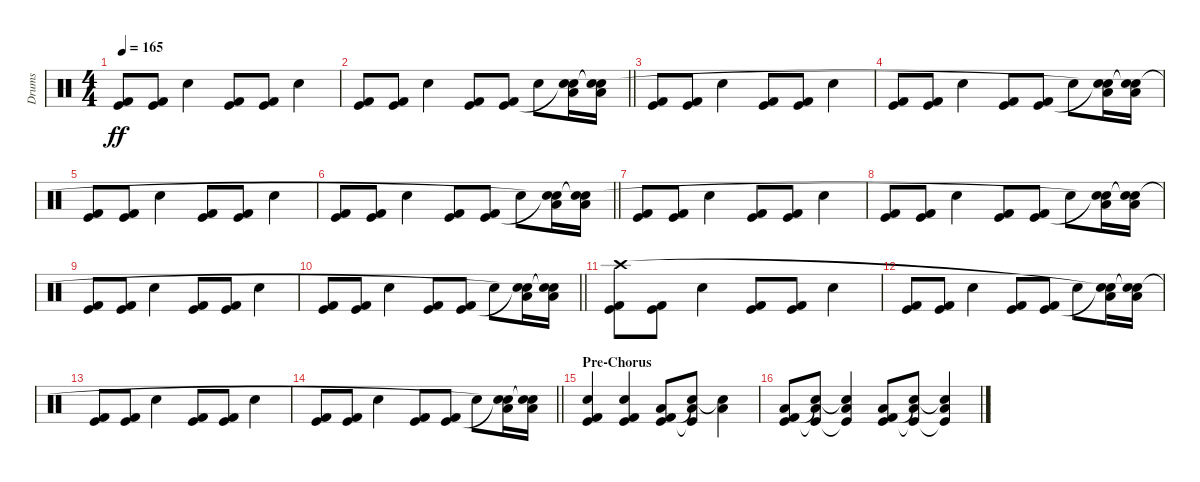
\track ("Drums" "Drums") {instrument percussion}
\staff
\articulation defaults
\ts (4 4)
\tempo 165
\clef neutral
\ks c
("Kick (hit) 2" "Kick (hit)").8{dy ff} ("Kick (hit) 2" "Kick (hit)").8 "Electric Snare (hit)".4 ("Kick (hit) 2" "Kick (hit)").8 ("Kick (hit) 2" "Kick (hit)").8 "Electric Snare (hit)".4 |
\barLineRight lightlight
("Kick (hit) 2" "Kick (hit)").8 ("Kick (hit) 2" "Kick (hit)").8 "Electric Snare (hit)".4 ("Kick (hit) 2" "Kick (hit)").8 ("Kick (hit) 2" "Kick (hit)").8 "Electric Snare (hit)".8 ("Low Tom (hit)" "Snare (hit)"{t} "Snare (hit)"{t}).16 ("Low Floor Tom (hit)" "Snare (hit)"{t} "Snare (hit)"{t}).16 |
("Kick (hit) 2" "Kick (hit)").8 ("Kick (hit) 2" "Kick (hit)").8 "Electric Snare (hit)".4 ("Kick (hit) 2" "Kick (hit)").8 ("Kick (hit) 2" "Kick (hit)").8 "Electric Snare (hit)".4 |
("Kick (hit) 2" "Kick (hit)").8 ("Kick (hit) 2" "Kick (hit)").8 "Electric Snare (hit)".4 ("Kick (hit) 2" "Kick (hit)").8 ("Kick (hit) 2" "Kick (hit)").8 "Electric Snare (hit)".8 ("Low Tom (hit)" "Snare (hit)"{t} "Snare (hit)"{t}).16 ("Low Floor Tom (hit)" "Snare (hit)"{t} "Snare (hit)"{t}).16 |
("Kick (hit) 2" "Kick (hit)").8 ("Kick (hit) 2" "Kick (hit)").8 "Electric Snare (hit)".4 ("Kick (hit) 2" "Kick (hit)").8 ("Kick (hit) 2" "Kick (hit)").8 "Electric Snare (hit)".4 |
\barLineRight lightlight
("Kick (hit) 2" "Kick (hit)").8 ("Kick (hit) 2" "Kick (hit)").8 "Electric Snare (hit)".4 ("Kick (hit) 2" "Kick (hit)").8 ("Kick (hit) 2" "Kick (hit)").8 "Electric Snare (hit)".8 ("Low Tom (hit)" "Snare (hit)"{t} "Snare (hit)"{t}).16 ("Low Floor Tom (hit)" "Snare (hit)"{t} "Snare (hit)"{t}).16 |
("Kick (hit) 2" "Kick (hit)").8 ("Kick (hit) 2" "Kick (hit)").8 "Electric Snare (hit)".4 ("Kick (hit) 2" "Kick (hit)").8 ("Kick (hit) 2" "Kick (hit)").8 "Electric Snare (hit)".4 |
("Kick (hit) 2" "Kick (hit)").8 ("Kick (hit) 2" "Kick (hit)").8 "Electric Snare (hit)".4 ("Kick (hit) 2" "Kick (hit)").8 ("Kick (hit) 2" "Kick (hit)").8 "Electric Snare (hit)".8 ("Low Tom (hit)" "Snare (hit)"{t} "Snare (hit)"{t}).16 ("Low Floor Tom (hit)" "Snare (hit)"{t} "Snare (hit)"{t}).16 |
("Kick (hit) 2" "Kick (hit)").8 ("Kick (hit) 2" "Kick (hit)").8 "Electric Snare (hit)".4 ("Kick (hit) 2" "Kick (hit)").8 ("Kick (hit) 2" "Kick (hit)").8 "Electric Snare (hit)".4 |
\barLineRight lightlight
("Kick (hit) 2" "Kick (hit)").8 ("Kick (hit) 2" "Kick (hit)").8 "Electric Snare (hit)".4 ("Kick (hit) 2" "Kick (hit)").8 ("Kick (hit) 2" "Kick (hit)").8 "Electric Snare (hit)".8 ("Low Tom (hit)" "Snare (hit)"{t} "Snare (hit)"{t}).16 ("Low Floor Tom (hit)" "Snare (hit)"{t} "Snare (hit)"{t}).16 |
("Kick (hit) 2" "Kick (hit)" "Crash high (hit)").8 ("Kick (hit) 2" "Kick (hit)").8 "Electric Snare (hit)".4 ("Kick (hit) 2" "Kick (hit)").8 ("Kick (hit) 2" "Kick (hit)").8 "Electric Snare (hit)".4 |
("Kick (hit) 2" "Kick (hit)").8 ("Kick (hit) 2" "Kick (hit)").8 "Electric Snare (hit)".4 ("Kick (hit) 2" "Kick (hit)").8 ("Kick (hit) 2" "Kick (hit)").8 "Electric Snare (hit)".8 ("Low Tom (hit)" "Snare (hit)"{t} "Snare (hit)"{t}).16 ("Low Floor Tom (hit)" "Snare (hit)"{t} "Snare (hit)"{t}).16 |
("Kick (hit) 2" "Kick (hit)").8 ("Kick (hit) 2" "Kick (hit)").8 "Electric Snare (hit)".4 ("Kick (hit) 2" "Kick (hit)").8 ("Kick (hit) 2" "Kick (hit)").8 "Electric Snare (hit)".4 |
\barLineRight lightlight
("Kick (hit) 2" "Kick (hit)").8 ("Kick (hit) 2" "Kick (hit)").8 "Electric Snare (hit)".4 ("Kick (hit) 2" "Kick (hit)").8 ("Kick (hit) 2" "Kick (hit)").8 "Electric Snare (hit)".8 ("Low Tom (hit)" "Snare (hit)"{t} "Snare (hit)"{t}).16 ("Low Floor Tom (hit)" "Snare (hit)"{t} "Snare (hit)"{t}).16 |
\section ("" "Pre-Chorus")
("Electric Snare (hit)" "Kick (hit) 2" "Kick (hit)").4 ("Electric Snare (hit)" "Kick (hit) 2" "Kick (hit)").4 ("Low Tom (hit)" "Kick (hit) 2" "Kick (hit)").8 ("Low Floor Tom (hit)" "Snare (hit)"{t} "Kick (hit)"{t}).8 ("Low Tom (hit)" "Snare (hit)"{t}).4 |
("Low Tom (hit)" "Kick (hit) 2" "Kick (hit)").8 ("Low Floor Tom (hit)" "Snare (hit)"{t} "Kick (hit)"{t}).8 ("Low Tom (hit)" "Snare (hit)"{t} "Kick (hit)"{t}).4 ("Low Tom (hit)" "Kick (hit) 2" "Kick (hit)").8 ("Low Floor Tom (hit)" "Snare (hit)"{t} "Kick (hit)"{t}).8 ("Low Tom (hit)" "Snare (hit)"{t} "Kick (hit)"{t}).4
